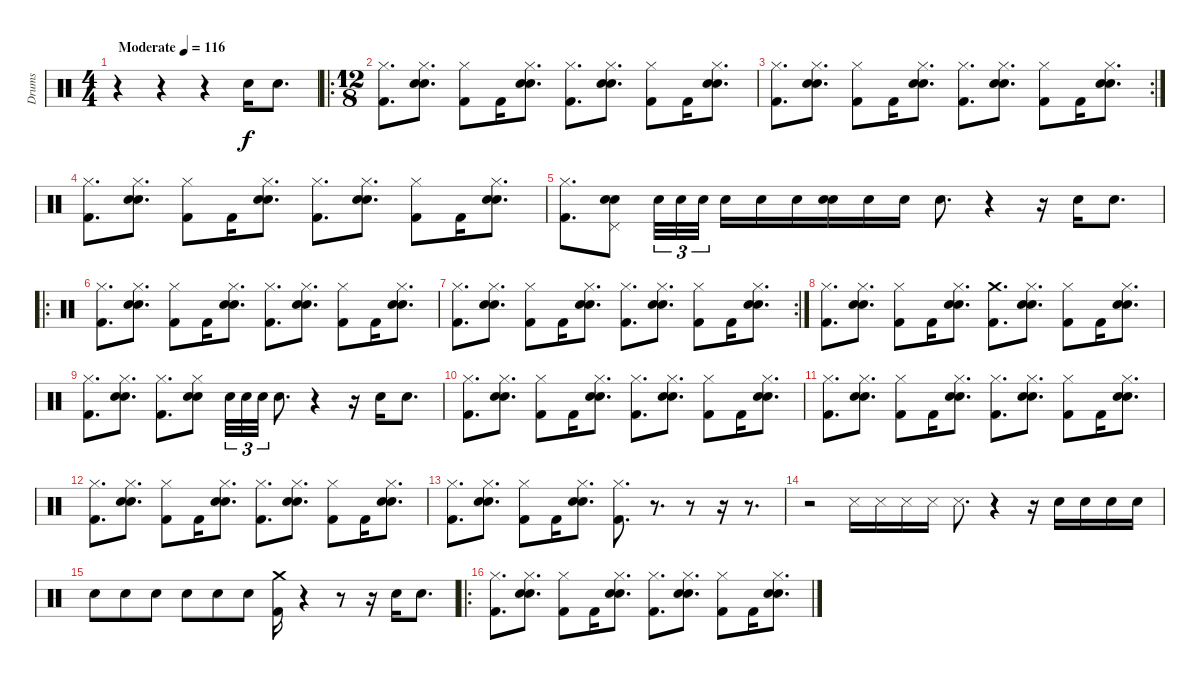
\track ("Drums" "Drums") {instrument percussion}
\staff {score}
\articulation defaults
\ts (4 4)
\tempo (116 "Moderate")
\clef neutral
\ks c
r.4{dy f} r.4 r.4 "Snare (hit) 2".16 "Snare (hit) 2".8{d} |
\ro
\ts (12 8)
("Hi-Hat (closed)" "Kick (hit) 2").8{d} ("Hi-Hat (closed)" "Snare (hit) 2" "Hand Clap (hit)").8{d} ("Hi-Hat (closed)" "Kick (hit) 2").8 "Kick (hit) 2".16 ("Hi-Hat (closed)" "Snare (hit) 2" "Hand Clap (hit)").8{d} ("Hi-Hat (closed)" "Kick (hit) 2").8{d} ("Hi-Hat (closed)" "Snare (hit) 2" "Hand Clap (hit)").8{d} ("Hi-Hat (closed)" "Kick (hit) 2").8 "Kick (hit) 2".16 ("Hi-Hat (closed)" "Snare (hit) 2" "Hand Clap (hit)").8{d} |
\rc 2
("Hi-Hat (closed)" "Kick (hit) 2").8{d} ("Hi-Hat (closed)" "Snare (hit) 2" "Hand Clap (hit)").8{d} ("Hi-Hat (closed)" "Kick (hit) 2").8 "Kick (hit) 2".16 ("Hi-Hat (closed)" "Snare (hit) 2" "Hand Clap (hit)").8{d} ("Hi-Hat (closed)" "Kick (hit) 2").8{d} ("Hi-Hat (closed)" "Snare (hit) 2" "Hand Clap (hit)").8{d} ("Hi-Hat (closed)" "Kick (hit) 2").8 "Kick (hit) 2".16 ("Hi-Hat (closed)" "Snare (hit) 2" "Hand Clap (hit)").8{d} |
("Hi-Hat (closed)" "Kick (hit) 2").8{d} ("Hi-Hat (closed)" "Snare (hit) 2" "Hand Clap (hit)").8{d} ("Hi-Hat (closed)" "Kick (hit) 2").8 "Kick (hit) 2".16 ("Hi-Hat (closed)" "Snare (hit) 2" "Hand Clap (hit)").8{d} ("Hi-Hat (closed)" "Kick (hit) 2").8{d} ("Hi-Hat (closed)" "Snare (hit) 2" "Hand Clap (hit)").8{d} ("Hi-Hat (closed)" "Kick (hit) 2").8 "Kick (hit) 2".16 ("Hi-Hat (closed)" "Snare (hit) 2" "Hand Clap (hit)").8{d} |
("Hi-Hat (closed)" "Kick (hit) 2").8{d} ("Hand Clap (hit)" "Pedal Hi-Hat (hit)" "Snare (hit) 2").8 "Snare (hit) 2".32{tu (3 2)} "Snare (hit) 2".32{tu (3 2)} "Snare (hit) 2".32{tu (3 2)} "Snare (hit) 2".16 "Snare (hit) 2".16 "Snare (hit) 2".16 ("Hand Clap (hit)" "Snare (hit) 2").16 "Snare (hit) 2".16 "Snare (hit) 2".16 "Snare (hit) 2".8{d} r.4 r.16 "Snare (hit) 2".16 "Snare (hit) 2".8{d} |
\ro
("Hi-Hat (closed)" "Kick (hit) 2").8{d} ("Hi-Hat (closed)" "Snare (hit) 2" "Hand Clap (hit)").8{d} ("Hi-Hat (closed)" "Kick (hit) 2").8 "Kick (hit) 2".16 ("Hi-Hat (closed)" "Snare (hit) 2" "Hand Clap (hit)").8{d} ("Hi-Hat (closed)" "Kick (hit) 2").8{d} ("Hi-Hat (closed)" "Snare (hit) 2" "Hand Clap (hit)").8{d} ("Hi-Hat (closed)" "Kick (hit) 2").8 "Kick (hit) 2".16 ("Hi-Hat (closed)" "Snare (hit) 2" "Hand Clap (hit)").8{d} |
\rc 2
("Hi-Hat (closed)" "Kick (hit) 2").8{d} ("Hi-Hat (closed)" "Snare (hit) 2" "Hand Clap (hit)").8{d} ("Hi-Hat (closed)" "Kick (hit) 2").8 "Kick (hit) 2".16 ("Hi-Hat (closed)" "Snare (hit) 2" "Hand Clap (hit)").8{d} ("Hi-Hat (closed)" "Kick (hit) 2").8{d} ("Hi-Hat (closed)" "Snare (hit) 2" "Hand Clap (hit)").8{d} ("Hi-Hat (closed)" "Kick (hit) 2").8 "Kick (hit) 2".16 ("Hi-Hat (closed)" "Snare (hit) 2" "Hand Clap (hit)").8{d} |
("Hi-Hat (closed)" "Kick (hit) 2").8{d} ("Hi-Hat (closed)" "Snare (hit) 2" "Hand Clap (hit)").8{d} ("Hi-Hat (closed)" "Kick (hit) 2").8 "Kick (hit) 2".16 ("Hi-Hat (closed)" "Snare (hit) 2" "Hand Clap (hit)").8{d} ("Crash medium (hit)" "Kick (hit) 2").8{d} ("Hi-Hat (closed)" "Snare (hit) 2" "Hand Clap (hit)").8{d} ("Hi-Hat (closed)" "Kick (hit) 2").8 "Kick (hit) 2".16 ("Hi-Hat (closed)" "Snare (hit) 2" "Hand Clap (hit)").8{d} |
("Hi-Hat (closed)" "Kick (hit) 2").8{d} ("Hand Clap (hit)" "Hi-Hat (closed)" "Snare (hit) 2").8{d} ("Hi-Hat (closed)" "Kick (hit) 2").8{d} ("Hand Clap (hit)" "Hi-Hat (closed)" "Snare (hit) 2").8 "Snare (hit) 2".32{tu (3 2)} "Snare (hit) 2".32{tu (3 2)} "Snare (hit) 2".32{tu (3 2)} "Snare (hit) 2".8{d} r.4 r.16 "Snare (hit) 2".16 "Snare (hit) 2".8{d} |
("Hi-Hat (closed)" "Kick (hit) 2").8{d} ("Hi-Hat (closed)" "Snare (hit) 2" "Hand Clap (hit)").8{d} ("Hi-Hat (closed)" "Kick (hit) 2").8 "Kick (hit) 2".16 ("Hi-Hat (closed)" "Snare (hit) 2" "Hand Clap (hit)").8{d} ("Hi-Hat (closed)" "Kick (hit) 2").8{d} ("Hi-Hat (closed)" "Snare (hit) 2" "Hand Clap (hit)").8{d} ("Hi-Hat (closed)" "Kick (hit) 2").8 "Kick (hit) 2".16 ("Hi-Hat (closed)" "Snare (hit) 2" "Hand Clap (hit)").8{d} |
("Hi-Hat (closed)" "Kick (hit) 2").8{d} ("Hi-Hat (closed)" "Snare (hit) 2" "Hand Clap (hit)").8{d} ("Hi-Hat (closed)" "Kick (hit) 2").8 "Kick (hit) 2".16 ("Hi-Hat (closed)" "Snare (hit) 2" "Hand Clap (hit)").8{d} ("Hi-Hat (closed)" "Kick (hit) 2").8{d} ("Hi-Hat (closed)" "Snare (hit) 2" "Hand Clap (hit)").8{d} ("Hi-Hat (closed)" "Kick (hit) 2").8 "Kick (hit) 2".16 ("Hi-Hat (closed)" "Snare (hit) 2" "Hand Clap (hit)").8{d} |
("Hi-Hat (closed)" "Kick (hit) 2").8{d} ("Hi-Hat (closed)" "Snare (hit) 2" "Hand Clap (hit)").8{d} ("Hi-Hat (closed)" "Kick (hit) 2").8 "Kick (hit) 2".16 ("Hi-Hat (closed)" "Snare (hit) 2" "Hand Clap (hit)").8{d} ("Hi-Hat (closed)" "Kick (hit) 2").8{d} ("Hi-Hat (closed)" "Snare (hit) 2" "Hand Clap (hit)").8{d} ("Hi-Hat (closed)" "Kick (hit) 2").8 "Kick (hit) 2".16 ("Hi-Hat (closed)" "Snare (hit) 2" "Hand Clap (hit)").8{d} |
("Hi-Hat (closed)" "Kick (hit) 2").8{d} ("Hi-Hat (closed)" "Snare (hit) 2" "Hand Clap (hit)").8{d} ("Hi-Hat (closed)" "Kick (hit) 2").8 "Kick (hit) 2".16 ("Hi-Hat (closed)" "Snare (hit) 2" "Hand Clap (hit)").8{d} ("Hi-Hat (closed)" "Kick (hit) 2").8{d} r.8{d} r.8 r.16 r.8{d} |
r.2 "Snare (side stick) 3".16 "Snare (side stick) 3".16 "Snare (side stick) 3".16 "Snare (side stick) 3".16 "Snare (side stick) 3".8{d} r.4 r.16 "Snare (hit) 2".16 "Snare (hit) 2".16 "Snare (hit) 2".16 "Snare (hit) 2".16 |
"Snare (hit) 2".8 "Snare (hit) 2".8 "Snare (hit) 2".8 "Snare (hit) 2".8 "Snare (hit) 2".8 "Snare (hit) 2".8 ("Kick (hit) 2" "Crash medium (hit)").16 r.4 r.8 r.16 "Snare (hit) 2".16 "Snare (hit) 2".8{d} |
\ro
("Hi-Hat (closed)" "Kick (hit) 2").8{d} ("Hi-Hat (closed)" "Snare (hit) 2" "Hand Clap (hit)").8{d} ("Hi-Hat (closed)" "Kick (hit) 2").8 "Kick (hit) 2".16 ("Hi-Hat (closed)" "Snare (hit) 2" "Hand Clap (hit)").8{d} ("Hi-Hat (closed)" "Kick (hit) 2").8{d} ("Hi-Hat (closed)" "Snare (hit) 2" "Hand Clap (hit)").8{d} ("Hi-Hat (closed)" "Kick (hit) 2").8 "Kick (hit) 2".16 ("Hi-Hat (closed)" "Snare (hit) 2" "Hand Clap (hit)").8{d}
